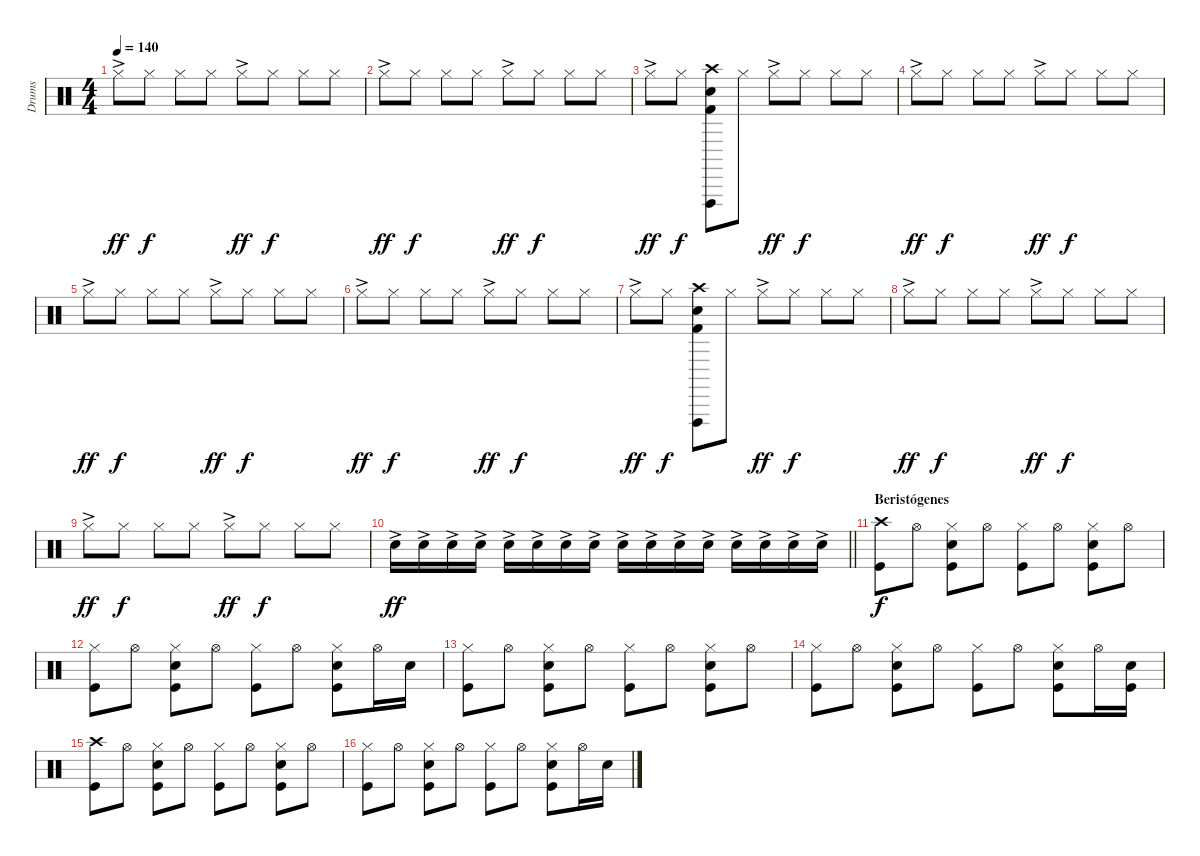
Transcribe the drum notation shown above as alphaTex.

\track ("Drums" "Drums") {instrument percussion}
\staff {score}
\articulation defaults
\ts (4 4)
\tempo 140
\clef neutral
\ks c "Hi-Hat (closed)"{ac}.8{dy ff} "Hi-Hat (closed)".8{dy f} "Hi-Hat (closed)".8 "Hi-Hat (closed)".8 "Hi-Hat (closed)"{ac}.8{dy ff} "Hi-Hat (closed)".8{dy f} "Hi-Hat (closed)".8 "Hi-Hat (closed)".8
|
"Hi-Hat (closed)"{ac}.8{dy ff} "Hi-Hat (closed)".8{dy f} "Hi-Hat (closed)".8 "Hi-Hat (closed)".8 "Hi-Hat (closed)"{ac}.8{dy ff} "Hi-Hat (closed)".8{dy f} "Hi-Hat (closed)".8 "Hi-Hat (closed)".8 |
"Hi-Hat (closed)"{ac}.8{dy ff} "Hi-Hat (closed)".8{dy f} ("Crash high (hit)" "Vibraslap (hit)" "Snare (hit) 2" "Kick (hit) 2").8 "Hi-Hat (closed)".8 "Hi-Hat (closed)"{ac}.8{dy ff} "Hi-Hat (closed)".8{dy f} "Hi-Hat (closed)".8 "Hi-Hat (closed)".8 |
"Hi-Hat (closed)"{ac}.8{dy ff} "Hi-Hat (closed)".8{dy f} "Hi-Hat (closed)".8 "Hi-Hat (closed)".8 "Hi-Hat (closed)"{ac}.8{dy ff} "Hi-Hat (closed)".8{dy f} "Hi-Hat (closed)".8 "Hi-Hat (closed)".8 |
"Hi-Hat (closed)"{ac}.8{dy ff} "Hi-Hat (closed)".8{dy f} "Hi-Hat (closed)".8 "Hi-Hat (closed)".8 "Hi-Hat (closed)"{ac}.8{dy ff} "Hi-Hat (closed)".8{dy f} "Hi-Hat (closed)".8 "Hi-Hat (closed)".8 |
"Hi-Hat (closed)"{ac}.8{dy ff} "Hi-Hat (closed)".8{dy f} "Hi-Hat (closed)".8 "Hi-Hat (closed)".8 "Hi-Hat (closed)"{ac}.8{dy ff} "Hi-Hat (closed)".8{dy f} "Hi-Hat (closed)".8 "Hi-Hat (closed)".8 |
"Hi-Hat (closed)"{ac}.8{dy ff} "Hi-Hat (closed)".8{dy f} ("Crash high (hit)" "Vibraslap (hit)" "Snare (hit) 2" "Kick (hit) 2").8 "Hi-Hat (closed)".8 "Hi-Hat (closed)"{ac}.8{dy ff} "Hi-Hat (closed)".8{dy f} "Hi-Hat (closed)".8 "Hi-Hat (closed)".8 |
"Hi-Hat (closed)"{ac}.8{dy ff} "Hi-Hat (closed)".8{dy f} "Hi-Hat (closed)".8 "Hi-Hat (closed)".8 "Hi-Hat (closed)"{ac}.8{dy ff} "Hi-Hat (closed)".8{dy f} "Hi-Hat (closed)".8 "Hi-Hat (closed)".8 |
"Hi-Hat (closed)"{ac}.8{dy ff} "Hi-Hat (closed)".8{dy f} "Hi-Hat (closed)".8 "Hi-Hat (closed)".8 "Hi-Hat (closed)"{ac}.8{dy ff} "Hi-Hat (closed)".8{dy f} "Hi-Hat (closed)".8 "Hi-Hat (closed)".8 |
\barLineRight lightlight "Snare (hit) 2"{ac}.16{dy ff} "Snare (hit) 2"{ac}.16 "Snare (hit) 2"{ac}.16 "Snare (hit) 2"{ac}.16 "Snare (hit) 2"{ac}.16 "Snare (hit) 2"{ac}.16 "Snare (hit) 2"{ac}.16 "Snare (hit) 2"{ac}.16 "Snare (hit) 2"{ac}.16 "Snare (hit) 2"{ac}.16 "Snare (hit) 2"{ac}.16 "Snare (hit) 2"{ac}.16 "Snare (hit) 2"{ac}.16 "Snare (hit) 2"{ac}.16 "Snare (hit) 2"{ac}.16 "Snare (hit) 2"{ac}.16
|
\section ("" "Beristógenes")
("Crash high (hit)" "Kick (hit)").8{dy f} "Hi-Hat (open)".8 ("Hi-Hat (closed)" "Snare (hit) 2" "Kick (hit)").8 "Hi-Hat (open)".8 ("Hi-Hat (closed)" "Kick (hit)").8 "Hi-Hat (open)".8 ("Hi-Hat (closed)" "Snare (hit) 2" "Kick (hit)").8 "Hi-Hat (open)".8 |
("Hi-Hat (closed)" "Kick (hit)").8 "Hi-Hat (open)".8 ("Hi-Hat (closed)" "Snare (hit) 2" "Kick (hit)").8 "Hi-Hat (open)".8 ("Hi-Hat (closed)" "Kick (hit)").8 "Hi-Hat (open)".8 ("Hi-Hat (closed)" "Snare (hit) 2" "Kick (hit)").8 "Hi-Hat (open)".16 "Snare (hit) 2".16 |
("Hi-Hat (closed)" "Kick (hit)").8 "Hi-Hat (open)".8 ("Hi-Hat (closed)" "Snare (hit) 2" "Kick (hit)").8 "Hi-Hat (open)".8 ("Hi-Hat (closed)" "Kick (hit)").8 "Hi-Hat (open)".8 ("Hi-Hat (closed)" "Snare (hit) 2" "Kick (hit)").8 "Hi-Hat (open)".8 |
("Hi-Hat (closed)" "Kick (hit)").8 "Hi-Hat (open)".8 ("Hi-Hat (closed)" "Snare (hit) 2" "Kick (hit)").8 "Hi-Hat (open)".8 ("Hi-Hat (closed)" "Kick (hit)").8 "Hi-Hat (open)".8 ("Hi-Hat (closed)" "Snare (hit) 2" "Kick (hit)").8 "Hi-Hat (open)".16 ("Snare (hit) 2" "Kick (hit)").16 |
("Crash high (hit)" "Kick (hit)").8 "Hi-Hat (open)".8 ("Hi-Hat (closed)" "Snare (hit) 2" "Kick (hit)").8 "Hi-Hat (open)".8 ("Hi-Hat (closed)" "Kick (hit)").8 "Hi-Hat (open)".8 ("Hi-Hat (closed)" "Snare (hit) 2" "Kick (hit)").8 "Hi-Hat (open)".8 |
("Hi-Hat (closed)" "Kick (hit)").8 "Hi-Hat (open)".8 ("Hi-Hat (closed)" "Snare (hit) 2" "Kick (hit)").8 "Hi-Hat (open)".8 ("Hi-Hat (closed)" "Kick (hit)").8 "Hi-Hat (open)".8 ("Hi-Hat (closed)" "Snare (hit) 2" "Kick (hit)").8 "Hi-Hat (open)".16 "Snare (hit) 2".16
